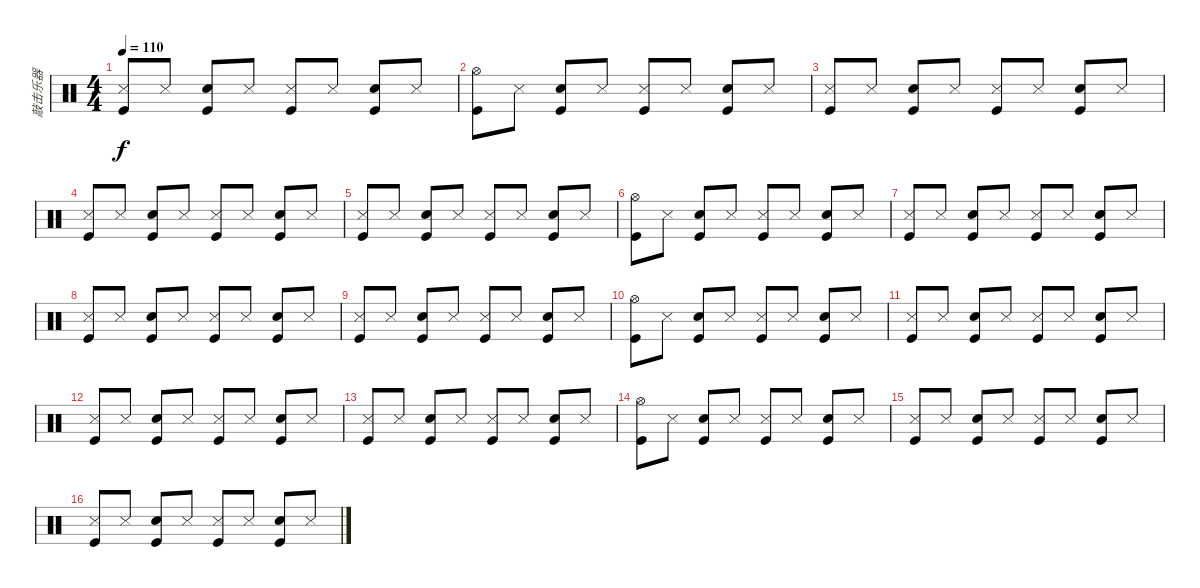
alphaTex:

\track ("敲击乐器" "敲击乐器") {instrument percussion}
\staff {score}
\articulation defaults
\ts (4 4)
\tempo 110
\clef neutral
\ks c
("Snare (side stick) 3" "Kick (hit)").8{dy f} "Snare (side stick) 3".8 ("Snare (hit) 2" "Kick (hit)").8 "Snare (side stick) 3".8 ("Snare (side stick) 3" "Kick (hit)").8 "Snare (side stick) 3".8 ("Snare (hit) 2" "Kick (hit)").8 "Snare (side stick) 3".8 |
("Hi-Hat (open)" "Kick (hit)").8 "Snare (side stick) 3".8 ("Snare (hit) 2" "Kick (hit)").8 "Snare (side stick) 3".8 ("Snare (side stick) 3" "Kick (hit)").8 "Snare (side stick) 3".8 ("Snare (hit) 2" "Kick (hit)").8 "Snare (side stick) 3".8 |
("Snare (side stick) 3" "Kick (hit)").8 "Snare (side stick) 3".8 ("Snare (hit) 2" "Kick (hit)").8 "Snare (side stick) 3".8 ("Snare (side stick) 3" "Kick (hit)").8 "Snare (side stick) 3".8 ("Snare (hit) 2" "Kick (hit)").8 "Snare (side stick) 3".8 |
("Snare (side stick) 3" "Kick (hit)").8 "Snare (side stick) 3".8 ("Snare (hit) 2" "Kick (hit)").8 "Snare (side stick) 3".8 ("Snare (side stick) 3" "Kick (hit)").8 "Snare (side stick) 3".8 ("Snare (hit) 2" "Kick (hit)").8 "Snare (side stick) 3".8 |
("Snare (side stick) 3" "Kick (hit)").8 "Snare (side stick) 3".8 ("Snare (hit) 2" "Kick (hit)").8 "Snare (side stick) 3".8 ("Snare (side stick) 3" "Kick (hit)").8 "Snare (side stick) 3".8 ("Snare (hit) 2" "Kick (hit)").8 "Snare (side stick) 3".8 |
("Hi-Hat (open)" "Kick (hit)").8 "Snare (side stick) 3".8 ("Snare (hit) 2" "Kick (hit)").8 "Snare (side stick) 3".8 ("Snare (side stick) 3" "Kick (hit)").8 "Snare (side stick) 3".8 ("Snare (hit) 2" "Kick (hit)").8 "Snare (side stick) 3".8 |
("Snare (side stick) 3" "Kick (hit)").8 "Snare (side stick) 3".8 ("Snare (hit) 2" "Kick (hit)").8 "Snare (side stick) 3".8 ("Snare (side stick) 3" "Kick (hit)").8 "Snare (side stick) 3".8 ("Snare (hit) 2" "Kick (hit)").8 "Snare (side stick) 3".8 |
("Snare (side stick) 3" "Kick (hit)").8 "Snare (side stick) 3".8 ("Snare (hit) 2" "Kick (hit)").8 "Snare (side stick) 3".8 ("Snare (side stick) 3" "Kick (hit)").8 "Snare (side stick) 3".8 ("Snare (hit) 2" "Kick (hit)").8 "Snare (side stick) 3".8 |
("Snare (side stick) 3" "Kick (hit)").8 "Snare (side stick) 3".8 ("Snare (hit) 2" "Kick (hit)").8 "Snare (side stick) 3".8 ("Snare (side stick) 3" "Kick (hit)").8 "Snare (side stick) 3".8 ("Snare (hit) 2" "Kick (hit)").8 "Snare (side stick) 3".8 |
("Hi-Hat (open)" "Kick (hit)").8 "Snare (side stick) 3".8 ("Snare (hit) 2" "Kick (hit)").8 "Snare (side stick) 3".8 ("Snare (side stick) 3" "Kick (hit)").8 "Snare (side stick) 3".8 ("Snare (hit) 2" "Kick (hit)").8 "Snare (side stick) 3".8 |
("Snare (side stick) 3" "Kick (hit)").8 "Snare (side stick) 3".8 ("Snare (hit) 2" "Kick (hit)").8 "Snare (side stick) 3".8 ("Snare (side stick) 3" "Kick (hit)").8 "Snare (side stick) 3".8 ("Snare (hit) 2" "Kick (hit)").8 "Snare (side stick) 3".8 |
("Snare (side stick) 3" "Kick (hit)").8 "Snare (side stick) 3".8 ("Snare (hit) 2" "Kick (hit)").8 "Snare (side stick) 3".8 ("Snare (side stick) 3" "Kick (hit)").8 "Snare (side stick) 3".8 ("Snare (hit) 2" "Kick (hit)").8 "Snare (side stick) 3".8 |
("Snare (side stick) 3" "Kick (hit)").8 "Snare (side stick) 3".8 ("Snare (hit) 2" "Kick (hit)").8 "Snare (side stick) 3".8 ("Snare (side stick) 3" "Kick (hit)").8 "Snare (side stick) 3".8 ("Snare (hit) 2" "Kick (hit)").8 "Snare (side stick) 3".8 |
("Hi-Hat (open)" "Kick (hit)").8 "Snare (side stick) 3".8 ("Snare (hit) 2" "Kick (hit)").8 "Snare (side stick) 3".8 ("Snare (side stick) 3" "Kick (hit)").8 "Snare (side stick) 3".8 ("Snare (hit) 2" "Kick (hit)").8 "Snare (side stick) 3".8 |
("Snare (side stick) 3" "Kick (hit)").8 "Snare (side stick) 3".8 ("Snare (hit) 2" "Kick (hit)").8 "Snare (side stick) 3".8 ("Snare (side stick) 3" "Kick (hit)").8 "Snare (side stick) 3".8 ("Snare (hit) 2" "Kick (hit)").8 "Snare (side stick) 3".8 |
("Snare (side stick) 3" "Kick (hit)").8 "Snare (side stick) 3".8 ("Snare (hit) 2" "Kick (hit)").8 "Snare (side stick) 3".8 ("Snare (side stick) 3" "Kick (hit)").8 "Snare (side stick) 3".8 ("Snare (hit) 2" "Kick (hit)").8 "Snare (side stick) 3".8
